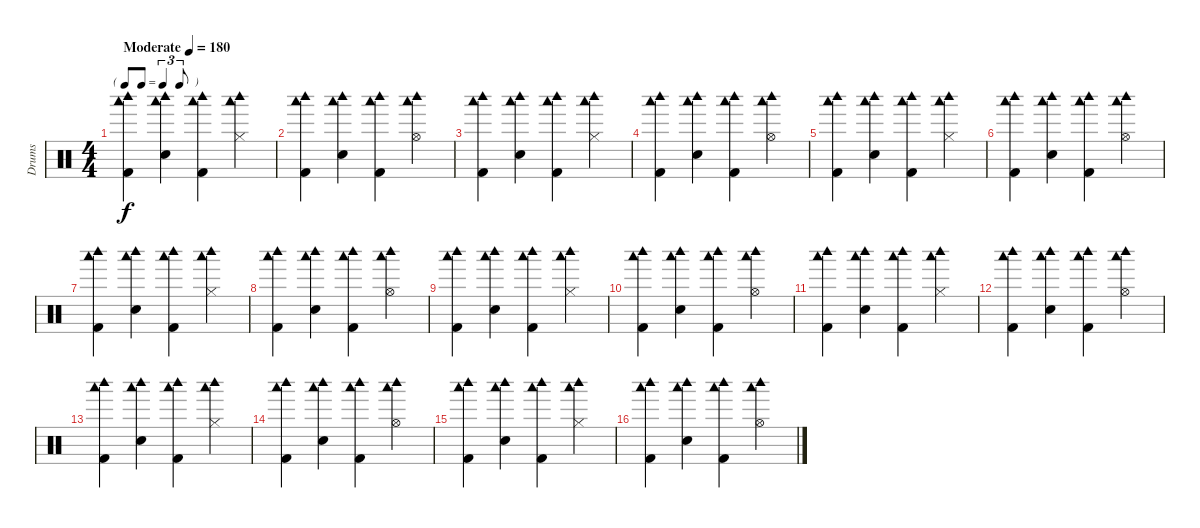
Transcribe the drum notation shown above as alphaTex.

\track ("Drums" "Drums") {instrument percussion}
\staff {score}
\articulation defaults
\ts (4 4)
\tf triplet8th
\tempo (180 "Moderate")
\clef neutral
\ks c
("Woodblock low (hit)" "Woodblock high (hit)" "Kick (hit) 2").4{dy f} ("Woodblock low (hit)" "Woodblock high (hit)" "Electric Snare (hit)").4 ("Woodblock low (hit)" "Woodblock high (hit)" "Kick (hit) 2").4 ("Woodblock low (hit)" "Woodblock high (hit)" "Hi-Hat (closed)").4 |
("Woodblock low (hit)" "Woodblock high (hit)" "Kick (hit) 2").4 ("Woodblock low (hit)" "Woodblock high (hit)" "Electric Snare (hit)").4 ("Woodblock low (hit)" "Woodblock high (hit)" "Kick (hit) 2").4 ("Woodblock low (hit)" "Woodblock high (hit)" "Hi-Hat (open)").4 |
("Woodblock low (hit)" "Woodblock high (hit)" "Kick (hit) 2").4 ("Woodblock low (hit)" "Woodblock high (hit)" "Electric Snare (hit)").4 ("Woodblock low (hit)" "Woodblock high (hit)" "Kick (hit) 2").4 ("Woodblock low (hit)" "Woodblock high (hit)" "Hi-Hat (closed)").4 |
("Woodblock low (hit)" "Woodblock high (hit)" "Kick (hit) 2").4 ("Woodblock low (hit)" "Woodblock high (hit)" "Electric Snare (hit)").4 ("Woodblock low (hit)" "Woodblock high (hit)" "Kick (hit) 2").4 ("Woodblock low (hit)" "Woodblock high (hit)" "Hi-Hat (open)").4 |
("Woodblock low (hit)" "Woodblock high (hit)" "Kick (hit) 2").4 ("Woodblock low (hit)" "Woodblock high (hit)" "Electric Snare (hit)").4 ("Woodblock low (hit)" "Woodblock high (hit)" "Kick (hit) 2").4 ("Woodblock low (hit)" "Woodblock high (hit)" "Hi-Hat (closed)").4 |
("Woodblock low (hit)" "Woodblock high (hit)" "Kick (hit) 2").4 ("Woodblock low (hit)" "Woodblock high (hit)" "Electric Snare (hit)").4 ("Woodblock low (hit)" "Woodblock high (hit)" "Kick (hit) 2").4 ("Woodblock low (hit)" "Woodblock high (hit)" "Hi-Hat (open)").4 |
("Woodblock low (hit)" "Woodblock high (hit)" "Kick (hit) 2").4 ("Woodblock low (hit)" "Woodblock high (hit)" "Electric Snare (hit)").4 ("Woodblock low (hit)" "Woodblock high (hit)" "Kick (hit) 2").4 ("Woodblock low (hit)" "Woodblock high (hit)" "Hi-Hat (closed)").4 |
("Woodblock low (hit)" "Woodblock high (hit)" "Kick (hit) 2").4 ("Woodblock low (hit)" "Woodblock high (hit)" "Electric Snare (hit)").4 ("Woodblock low (hit)" "Woodblock high (hit)" "Kick (hit) 2").4 ("Woodblock low (hit)" "Woodblock high (hit)" "Hi-Hat (open)").4 |
("Woodblock low (hit)" "Woodblock high (hit)" "Kick (hit) 2").4 ("Woodblock low (hit)" "Woodblock high (hit)" "Electric Snare (hit)").4 ("Woodblock low (hit)" "Woodblock high (hit)" "Kick (hit) 2").4 ("Woodblock low (hit)" "Woodblock high (hit)" "Hi-Hat (closed)").4 |
("Woodblock low (hit)" "Woodblock high (hit)" "Kick (hit) 2").4 ("Woodblock low (hit)" "Woodblock high (hit)" "Electric Snare (hit)").4 ("Woodblock low (hit)" "Woodblock high (hit)" "Kick (hit) 2").4 ("Woodblock low (hit)" "Woodblock high (hit)" "Hi-Hat (open)").4 |
("Woodblock low (hit)" "Woodblock high (hit)" "Kick (hit) 2").4 ("Woodblock low (hit)" "Woodblock high (hit)" "Electric Snare (hit)").4 ("Woodblock low (hit)" "Woodblock high (hit)" "Kick (hit) 2").4 ("Woodblock low (hit)" "Woodblock high (hit)" "Hi-Hat (closed)").4 |
("Woodblock low (hit)" "Woodblock high (hit)" "Kick (hit) 2").4 ("Woodblock low (hit)" "Woodblock high (hit)" "Electric Snare (hit)").4 ("Woodblock low (hit)" "Woodblock high (hit)" "Kick (hit) 2").4 ("Woodblock low (hit)" "Woodblock high (hit)" "Hi-Hat (open)").4 |
("Woodblock low (hit)" "Woodblock high (hit)" "Kick (hit) 2").4 ("Woodblock low (hit)" "Woodblock high (hit)" "Electric Snare (hit)").4 ("Woodblock low (hit)" "Woodblock high (hit)" "Kick (hit) 2").4 ("Woodblock low (hit)" "Woodblock high (hit)" "Hi-Hat (closed)").4 |
("Woodblock low (hit)" "Woodblock high (hit)" "Kick (hit) 2").4 ("Woodblock low (hit)" "Woodblock high (hit)" "Electric Snare (hit)").4 ("Woodblock low (hit)" "Woodblock high (hit)" "Kick (hit) 2").4 ("Woodblock low (hit)" "Woodblock high (hit)" "Hi-Hat (open)").4 |
("Woodblock low (hit)" "Woodblock high (hit)" "Kick (hit) 2").4 ("Woodblock low (hit)" "Woodblock high (hit)" "Electric Snare (hit)").4 ("Woodblock low (hit)" "Woodblock high (hit)" "Kick (hit) 2").4 ("Woodblock low (hit)" "Woodblock high (hit)" "Hi-Hat (closed)").4 |
("Woodblock low (hit)" "Woodblock high (hit)" "Kick (hit) 2").4 ("Woodblock low (hit)" "Woodblock high (hit)" "Electric Snare (hit)").4 ("Woodblock low (hit)" "Woodblock high (hit)" "Kick (hit) 2").4 ("Woodblock low (hit)" "Woodblock high (hit)" "Hi-Hat (open)").4
